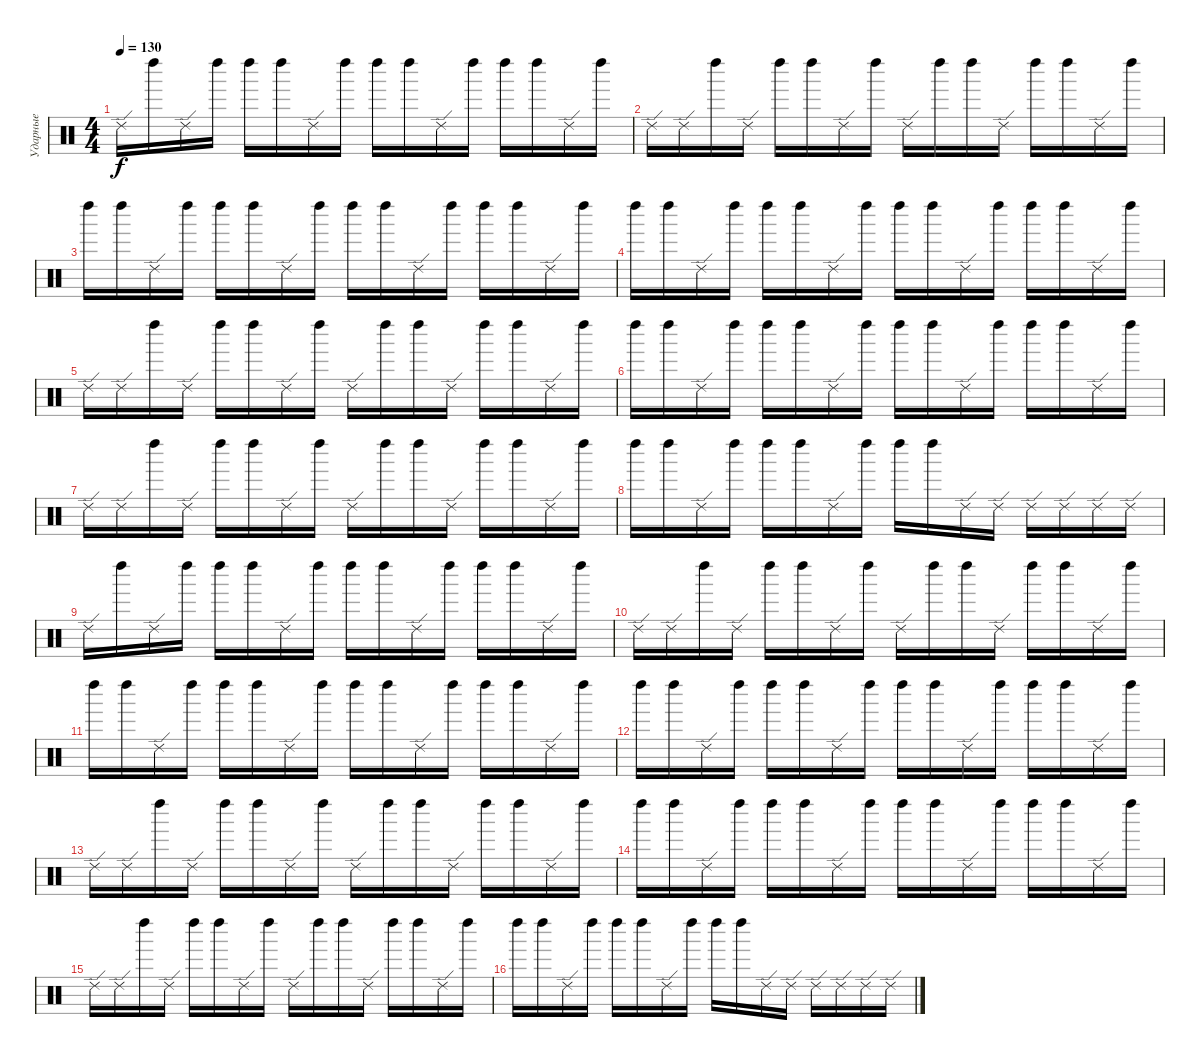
\track ("Ударные" "Ударные") {instrument percussion}
\staff {score}
\articulation defaults
\ts (4 4)
\tempo 130
\clef neutral
\ks c "Ride (edge) 2".16{dy f} "Left Maraca (hit)".16 "Ride (edge) 2".16 "Left Maraca (hit)".16 "Left Maraca (hit)".16 "Left Maraca (hit)".16 "Ride (edge) 2".16 "Left Maraca (hit)".16 "Left Maraca (hit)".16 "Left Maraca (hit)".16 "Ride (edge) 2".16 "Left Maraca (hit)".16 "Left Maraca (hit)".16 "Left Maraca (hit)".16 "Ride (edge) 2".16 "Left Maraca (hit)".16
|
"Ride (edge) 2".16 "Ride (edge) 2".16 "Left Maraca (hit)".16 "Ride (edge) 2".16 "Left Maraca (hit)".16 "Left Maraca (hit)".16 "Ride (edge) 2".16 "Left Maraca (hit)".16 "Ride (edge) 2".16 "Left Maraca (hit)".16 "Left Maraca (hit)".16 "Ride (edge) 2".16 "Left Maraca (hit)".16 "Left Maraca (hit)".16 "Ride (edge) 2".16 "Left Maraca (hit)".16 |
"Left Maraca (hit)".16 "Left Maraca (hit)".16 "Ride (edge) 2".16 "Left Maraca (hit)".16 "Left Maraca (hit)".16 "Left Maraca (hit)".16 "Ride (edge) 2".16 "Left Maraca (hit)".16 "Left Maraca (hit)".16 "Left Maraca (hit)".16 "Ride (edge) 2".16 "Left Maraca (hit)".16 "Left Maraca (hit)".16 "Left Maraca (hit)".16 "Ride (edge) 2".16 "Left Maraca (hit)".16 |
"Left Maraca (hit)".16 "Left Maraca (hit)".16 "Ride (edge) 2".16 "Left Maraca (hit)".16 "Left Maraca (hit)".16 "Left Maraca (hit)".16 "Ride (edge) 2".16 "Left Maraca (hit)".16 "Left Maraca (hit)".16 "Left Maraca (hit)".16 "Ride (edge) 2".16 "Left Maraca (hit)".16 "Left Maraca (hit)".16 "Left Maraca (hit)".16 "Ride (edge) 2".16 "Left Maraca (hit)".16 |
"Ride (edge) 2".16 "Ride (edge) 2".16 "Left Maraca (hit)".16 "Ride (edge) 2".16 "Left Maraca (hit)".16 "Left Maraca (hit)".16 "Ride (edge) 2".16 "Left Maraca (hit)".16 "Ride (edge) 2".16 "Left Maraca (hit)".16 "Left Maraca (hit)".16 "Ride (edge) 2".16 "Left Maraca (hit)".16 "Left Maraca (hit)".16 "Ride (edge) 2".16 "Left Maraca (hit)".16 |
"Left Maraca (hit)".16 "Left Maraca (hit)".16 "Ride (edge) 2".16 "Left Maraca (hit)".16 "Left Maraca (hit)".16 "Left Maraca (hit)".16 "Ride (edge) 2".16 "Left Maraca (hit)".16 "Left Maraca (hit)".16 "Left Maraca (hit)".16 "Ride (edge) 2".16 "Left Maraca (hit)".16 "Left Maraca (hit)".16 "Left Maraca (hit)".16 "Ride (edge) 2".16 "Left Maraca (hit)".16 |
"Ride (edge) 2".16 "Ride (edge) 2".16 "Left Maraca (hit)".16 "Ride (edge) 2".16 "Left Maraca (hit)".16 "Left Maraca (hit)".16 "Ride (edge) 2".16 "Left Maraca (hit)".16 "Ride (edge) 2".16 "Left Maraca (hit)".16 "Left Maraca (hit)".16 "Ride (edge) 2".16 "Left Maraca (hit)".16 "Left Maraca (hit)".16 "Ride (edge) 2".16 "Left Maraca (hit)".16 |
"Left Maraca (hit)".16 "Left Maraca (hit)".16 "Ride (edge) 2".16 "Left Maraca (hit)".16 "Left Maraca (hit)".16 "Left Maraca (hit)".16 "Ride (edge) 2".16 "Left Maraca (hit)".16 "Left Maraca (hit)".16 "Left Maraca (hit)".16 "Ride (edge) 2".16 "Ride (edge) 2".16 "Ride (edge) 2".16 "Ride (edge) 2".16 "Ride (edge) 2".16 "Ride (edge) 2".16 |
"Ride (edge) 2".16 "Left Maraca (hit)".16 "Ride (edge) 2".16 "Left Maraca (hit)".16 "Left Maraca (hit)".16 "Left Maraca (hit)".16 "Ride (edge) 2".16 "Left Maraca (hit)".16 "Left Maraca (hit)".16 "Left Maraca (hit)".16 "Ride (edge) 2".16 "Left Maraca (hit)".16 "Left Maraca (hit)".16 "Left Maraca (hit)".16 "Ride (edge) 2".16 "Left Maraca (hit)".16 |
"Ride (edge) 2".16 "Ride (edge) 2".16 "Left Maraca (hit)".16 "Ride (edge) 2".16 "Left Maraca (hit)".16 "Left Maraca (hit)".16 "Ride (edge) 2".16 "Left Maraca (hit)".16 "Ride (edge) 2".16 "Left Maraca (hit)".16 "Left Maraca (hit)".16 "Ride (edge) 2".16 "Left Maraca (hit)".16 "Left Maraca (hit)".16 "Ride (edge) 2".16 "Left Maraca (hit)".16 |
"Left Maraca (hit)".16 "Left Maraca (hit)".16 "Ride (edge) 2".16 "Left Maraca (hit)".16 "Left Maraca (hit)".16 "Left Maraca (hit)".16 "Ride (edge) 2".16 "Left Maraca (hit)".16 "Left Maraca (hit)".16 "Left Maraca (hit)".16 "Ride (edge) 2".16 "Left Maraca (hit)".16 "Left Maraca (hit)".16 "Left Maraca (hit)".16 "Ride (edge) 2".16 "Left Maraca (hit)".16 |
"Left Maraca (hit)".16 "Left Maraca (hit)".16 "Ride (edge) 2".16 "Left Maraca (hit)".16 "Left Maraca (hit)".16 "Left Maraca (hit)".16 "Ride (edge) 2".16 "Left Maraca (hit)".16 "Left Maraca (hit)".16 "Left Maraca (hit)".16 "Ride (edge) 2".16 "Left Maraca (hit)".16 "Left Maraca (hit)".16 "Left Maraca (hit)".16 "Ride (edge) 2".16 "Left Maraca (hit)".16 |
"Ride (edge) 2".16 "Ride (edge) 2".16 "Left Maraca (hit)".16 "Ride (edge) 2".16 "Left Maraca (hit)".16 "Left Maraca (hit)".16 "Ride (edge) 2".16 "Left Maraca (hit)".16 "Ride (edge) 2".16 "Left Maraca (hit)".16 "Left Maraca (hit)".16 "Ride (edge) 2".16 "Left Maraca (hit)".16 "Left Maraca (hit)".16 "Ride (edge) 2".16 "Left Maraca (hit)".16 |
"Left Maraca (hit)".16 "Left Maraca (hit)".16 "Ride (edge) 2".16 "Left Maraca (hit)".16 "Left Maraca (hit)".16 "Left Maraca (hit)".16 "Ride (edge) 2".16 "Left Maraca (hit)".16 "Left Maraca (hit)".16 "Left Maraca (hit)".16 "Ride (edge) 2".16 "Left Maraca (hit)".16 "Left Maraca (hit)".16 "Left Maraca (hit)".16 "Ride (edge) 2".16 "Left Maraca (hit)".16 |
"Ride (edge) 2".16 "Ride (edge) 2".16 "Left Maraca (hit)".16 "Ride (edge) 2".16 "Left Maraca (hit)".16 "Left Maraca (hit)".16 "Ride (edge) 2".16 "Left Maraca (hit)".16 "Ride (edge) 2".16 "Left Maraca (hit)".16 "Left Maraca (hit)".16 "Ride (edge) 2".16 "Left Maraca (hit)".16 "Left Maraca (hit)".16 "Ride (edge) 2".16 "Left Maraca (hit)".16 |
"Left Maraca (hit)".16 "Left Maraca (hit)".16 "Ride (edge) 2".16 "Left Maraca (hit)".16 "Left Maraca (hit)".16 "Left Maraca (hit)".16 "Ride (edge) 2".16 "Left Maraca (hit)".16 "Left Maraca (hit)".16 "Left Maraca (hit)".16 "Ride (edge) 2".16 "Ride (edge) 2".16 "Ride (edge) 2".16 "Ride (edge) 2".16 "Ride (edge) 2".16 "Ride (edge) 2".16
